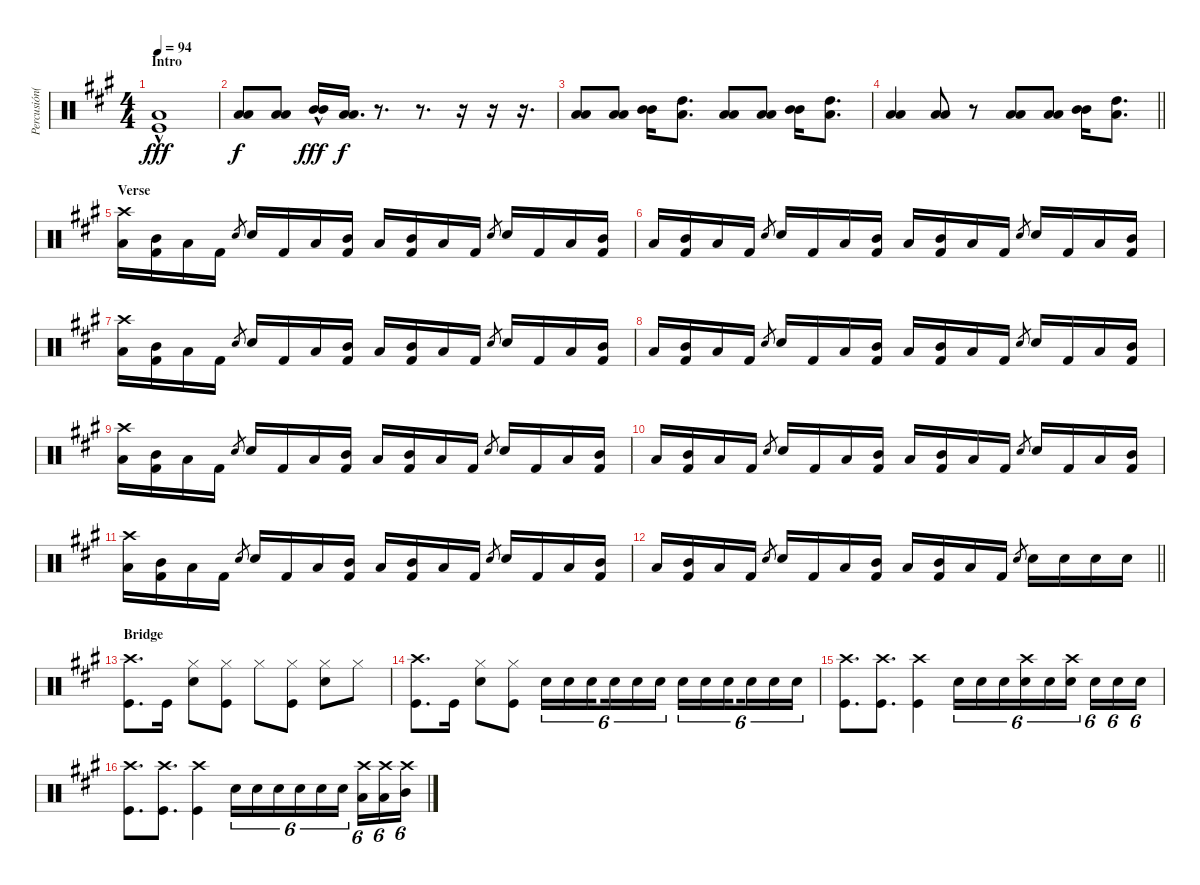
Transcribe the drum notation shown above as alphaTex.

\track ("Percusión(S.Drover)" "Percusión(") {instrument percussion}
\staff {score}
\articulation defaults
\ts (4 4)
\section ("" "Intro")
\tempo 94
\clef neutral
\ks a
("Low Tom (hit)"{hac} "Kick (hit)").1{dy fff} |
("Low Tom (hit)" "Low Tom (hit)").8{dy f} ("Low Tom (hit)" "Low Tom (hit)").8 ("Mid Tom (hit)"{hac} "Mid Tom (hit)").16{dy fff} ("Low Tom (hit)" "Low Tom (hit)").16{d dy f} r.8{d} r.8{d} r.16 r.16 r.16{d} |
("Low Tom (hit)" "Low Tom (hit)").8 ("Low Tom (hit)" "Low Tom (hit)").8 ("Mid Tom (hit)" "Mid Tom (hit)").16 ("Low Tom (hit)" "High Tom (hit)").8{d} ("Low Tom (hit)" "Low Tom (hit)").8 ("Low Tom (hit)" "Low Tom (hit)").8 ("Mid Tom (hit)" "Mid Tom (hit)").16 ("Low Tom (hit)" "High Tom (hit)").8{d} |
\barLineRight lightlight
("Low Tom (hit)" "Low Tom (hit)").4 ("Low Tom (hit)" "Low Tom (hit)").8 r.8 ("Low Tom (hit)" "Low Tom (hit)").8 ("Low Tom (hit)" "Low Tom (hit)").8 ("Mid Tom (hit)" "Mid Tom (hit)").16 ("Low Tom (hit)" "High Tom (hit)").8{d} |
\section ("" "Verse")
("Crash high (hit)" "Low Tom (hit)").16 ("Kick (hit) 2" "Mid Tom (hit)").16 "Low Tom (hit)".16 "Kick (hit) 2".16 "Snare (hit) 2".8{gr} "Snare (hit) 2".16 "Kick (hit) 2".16 "Low Tom (hit)".16 ("Kick (hit) 2" "Mid Tom (hit)").16 "Low Tom (hit)".16 ("Kick (hit) 2" "Mid Tom (hit)").16 "Low Tom (hit)".16 "Kick (hit) 2".16 "Snare (hit) 2".8{gr} "Snare (hit) 2".16 "Kick (hit) 2".16 "Low Tom (hit)".16 ("Kick (hit) 2" "Mid Tom (hit)").16 |
"Low Tom (hit)".16 ("Kick (hit) 2" "Mid Tom (hit)").16 "Low Tom (hit)".16 "Kick (hit) 2".16 "Snare (hit) 2".8{gr} "Snare (hit) 2".16 "Kick (hit) 2".16 "Low Tom (hit)".16 ("Kick (hit) 2" "Mid Tom (hit)").16 "Low Tom (hit)".16 ("Kick (hit) 2" "Mid Tom (hit)").16 "Low Tom (hit)".16 "Kick (hit) 2".16 "Snare (hit) 2".8{gr} "Snare (hit) 2".16 "Kick (hit) 2".16 "Low Tom (hit)".16 ("Kick (hit) 2" "Mid Tom (hit)").16 |
("Crash high (hit)" "Low Tom (hit)").16 ("Kick (hit) 2" "Mid Tom (hit)").16 "Low Tom (hit)".16 "Kick (hit) 2".16 "Snare (hit) 2".8{gr} "Snare (hit) 2".16 "Kick (hit) 2".16 "Low Tom (hit)".16 ("Kick (hit) 2" "Mid Tom (hit)").16 "Low Tom (hit)".16 ("Kick (hit) 2" "Mid Tom (hit)").16 "Low Tom (hit)".16 "Kick (hit) 2".16 "Snare (hit) 2".8{gr} "Snare (hit) 2".16 "Kick (hit) 2".16 "Low Tom (hit)".16 ("Kick (hit) 2" "Mid Tom (hit)").16 |
"Low Tom (hit)".16 ("Kick (hit) 2" "Mid Tom (hit)").16 "Low Tom (hit)".16 "Kick (hit) 2".16 "Snare (hit) 2".8{gr} "Snare (hit) 2".16 "Kick (hit) 2".16 "Low Tom (hit)".16 ("Kick (hit) 2" "Mid Tom (hit)").16 "Low Tom (hit)".16 ("Kick (hit) 2" "Mid Tom (hit)").16 "Low Tom (hit)".16 "Kick (hit) 2".16 "Snare (hit) 2".8{gr} "Snare (hit) 2".16 "Kick (hit) 2".16 "Low Tom (hit)".16 ("Kick (hit) 2" "Mid Tom (hit)").16 |
("Crash high (hit)" "Low Tom (hit)").16 ("Kick (hit) 2" "Mid Tom (hit)").16 "Low Tom (hit)".16 "Kick (hit) 2".16 "Snare (hit) 2".8{gr} "Snare (hit) 2".16 "Kick (hit) 2".16 "Low Tom (hit)".16 ("Kick (hit) 2" "Mid Tom (hit)").16 "Low Tom (hit)".16 ("Kick (hit) 2" "Mid Tom (hit)").16 "Low Tom (hit)".16 "Kick (hit) 2".16 "Snare (hit) 2".8{gr} "Snare (hit) 2".16 "Kick (hit) 2".16 "Low Tom (hit)".16 ("Kick (hit) 2" "Mid Tom (hit)").16 |
"Low Tom (hit)".16 ("Kick (hit) 2" "Mid Tom (hit)").16 "Low Tom (hit)".16 "Kick (hit) 2".16 "Snare (hit) 2".8{gr} "Snare (hit) 2".16 "Kick (hit) 2".16 "Low Tom (hit)".16 ("Kick (hit) 2" "Mid Tom (hit)").16 "Low Tom (hit)".16 ("Kick (hit) 2" "Mid Tom (hit)").16 "Low Tom (hit)".16 "Kick (hit) 2".16 "Snare (hit) 2".8{gr} "Snare (hit) 2".16 "Kick (hit) 2".16 "Low Tom (hit)".16 ("Kick (hit) 2" "Mid Tom (hit)").16 |
("Crash high (hit)" "Low Tom (hit)").16 ("Kick (hit) 2" "Mid Tom (hit)").16 "Low Tom (hit)".16 "Kick (hit) 2".16 "Snare (hit) 2".8{gr} "Snare (hit) 2".16 "Kick (hit) 2".16 "Low Tom (hit)".16 ("Kick (hit) 2" "Mid Tom (hit)").16 "Low Tom (hit)".16 ("Kick (hit) 2" "Mid Tom (hit)").16 "Low Tom (hit)".16 "Kick (hit) 2".16 "Snare (hit) 2".8{gr} "Snare (hit) 2".16 "Kick (hit) 2".16 "Low Tom (hit)".16 ("Kick (hit) 2" "Mid Tom (hit)").16 |
\barLineRight lightlight "Low Tom (hit)".16
("Kick (hit) 2" "Mid Tom (hit)").16 "Low Tom (hit)".16 "Kick (hit) 2".16 "Snare (hit) 2".8{gr} "Snare (hit) 2".16 "Kick (hit) 2".16 "Low Tom (hit)".16 ("Kick (hit) 2" "Mid Tom (hit)").16 "Low Tom (hit)".16 ("Kick (hit) 2" "Mid Tom (hit)").16 "Low Tom (hit)".16 "Kick (hit) 2".16 "Snare (hit) 2".8{gr} "Snare (hit) 2".16 "Snare (hit) 2".16 "Snare (hit) 2".16 "Snare (hit) 2".16 |
\section ("" "Bridge")
("Kick (hit)" "Crash high (hit)").8{d} "Kick (hit)".16 ("Hi-Hat (closed)" "Snare (hit) 2").8 ("Kick (hit)" "Hi-Hat (closed)").8 "Hi-Hat (closed)".8 ("Kick (hit)" "Hi-Hat (closed)").8 ("Hi-Hat (closed)" "Snare (hit) 2").8 "Hi-Hat (closed)".8 |
("Kick (hit)" "Crash high (hit)").8{d} "Kick (hit)".16 ("Hi-Hat (closed)" "Snare (hit) 2").8 ("Kick (hit)" "Hi-Hat (closed)").8 "Snare (hit) 2".16{tu (6 4)} "Snare (hit) 2".16{tu (6 4)} "Snare (hit) 2".16{tu (6 4) beam splitsecondary} "Snare (hit) 2".16{tu (6 4)} "Snare (hit) 2".16{tu (6 4)} "Snare (hit) 2".16{tu (6 4)} "Snare (hit) 2".16{tu (6 4)} "Snare (hit) 2".16{tu (6 4)} "Snare (hit) 2".16{tu (6 4) beam splitsecondary} "Snare (hit) 2".16{tu (6 4)} "Snare (hit) 2".16{tu (6 4)} "Snare (hit) 2".16{tu (6 4)} |
("Crash high (hit)" "Kick (hit)").8{d} ("Crash high (hit)" "Kick (hit)").8{d} ("Crash high (hit)" "Kick (hit)").4 "Snare (hit) 2".16{tu (6 4)} "Snare (hit) 2".16{tu (6 4)} "Snare (hit) 2".16{tu (6 4)} ("Crash high (hit)" "Snare (hit) 2").16{tu (6 4)} "Snare (hit) 2".16{tu (6 4)} ("Crash high (hit)" "Snare (hit) 2").16{tu (6 4) beam splitsecondary} "Snare (hit) 2".16{tu (6 4)} "Snare (hit) 2".16{tu (6 4)} "Snare (hit) 2".16{tu (6 4)} |
("Crash high (hit)" "Kick (hit)").8{d} ("Crash high (hit)" "Kick (hit)").8{d} ("Crash high (hit)" "Kick (hit)").4 "Electric Snare (hit)".16{tu (6 4)} "Electric Snare (hit)".16{tu (6 4)} "Electric Snare (hit)".16{tu (6 4)} "Snare (hit) 2".16{tu (6 4)} "Snare (hit) 2".16{tu (6 4)} "Snare (hit) 2".16{tu (6 4) beam splitsecondary} ("Crash high (hit)" "Low Tom (hit)").16{tu (6 4)} ("Crash high (hit)" "Low Tom (hit)").16{tu (6 4)} ("Crash high (hit)" "Mid Tom (hit)").16{tu (6 4)}
